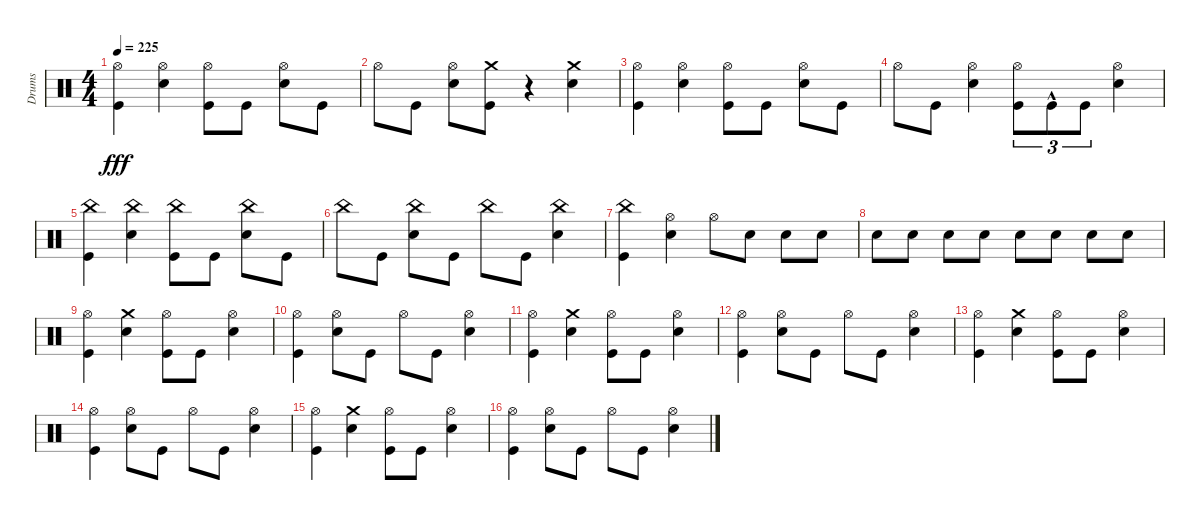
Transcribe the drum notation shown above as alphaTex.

\track ("Drums" "Drums") {instrument percussion}
\staff {score}
\articulation defaults
\ts (4 4)
\tempo 225
\clef neutral
\ks c
("Kick (hit)" "Hi-Hat (open)").4{dy fff} ("Snare (hit) 2" "Hi-Hat (open)").4 ("Kick (hit)" "Hi-Hat (open)").8 "Kick (hit)".8 ("Snare (hit) 2" "Hi-Hat (open)").8 "Kick (hit)".8 |
"Hi-Hat (open)".8 "Kick (hit)".8 ("Snare (hit) 2" "Hi-Hat (open)").8 ("Crash medium (hit)" "Kick (hit)").8 r.4 ("Snare (hit) 2" "Crash medium (hit)").4 |
("Kick (hit)" "Hi-Hat (open)").4 ("Snare (hit) 2" "Hi-Hat (open)").4 ("Kick (hit)" "Hi-Hat (open)").8 "Kick (hit)".8 ("Snare (hit) 2" "Hi-Hat (open)").8 "Kick (hit)".8 |
"Hi-Hat (open)".8 "Kick (hit)".8 ("Snare (hit) 2" "Hi-Hat (open)").4 ("Kick (hit)" "Hi-Hat (open)").8{tu (3 2)} "Kick (hit)"{hac}.8{tu (3 2)} "Kick (hit)".8{tu (3 2)} ("Hi-Hat (open)" "Snare (hit) 2").4 |
("China (hit)" "Kick (hit)").4 ("China (hit)" "Snare (hit) 2").4 ("China (hit)" "Kick (hit)").8 "Kick (hit)".8 ("China (hit)" "Snare (hit) 2").8 "Kick (hit)".8 |
"China (hit)".8 "Kick (hit)".8 ("China (hit)" "Snare (hit) 2").8 "Kick (hit)".8 "China (hit)".8 "Kick (hit)".8 ("China (hit)" "Snare (hit) 2").4 |
("China (hit)" "Kick (hit)").4 ("Snare (hit) 2" "Hi-Hat (open)").4 "Hi-Hat (open)".8 "Snare (hit) 2".8 "Snare (hit) 2".8 "Snare (hit) 2".8 |
"Snare (hit) 2".8 "Snare (hit) 2".8 "Snare (hit) 2".8 "Snare (hit) 2".8 "Snare (hit) 2".8 "Snare (hit) 2".8 "Snare (hit) 2".8 "Snare (hit) 2".8 |
("Kick (hit)" "Hi-Hat (open)").4 ("Snare (hit) 2" "Crash medium (hit)").4 ("Kick (hit)" "Hi-Hat (open)").8 "Kick (hit)".8 ("Snare (hit) 2" "Hi-Hat (open)").4 |
("Kick (hit)" "Hi-Hat (open)").4 ("Hi-Hat (open)" "Snare (hit) 2").8 "Kick (hit)".8 "Hi-Hat (open)".8 "Kick (hit)".8 ("Snare (hit) 2" "Hi-Hat (open)").4 |
("Kick (hit)" "Hi-Hat (open)").4 ("Snare (hit) 2" "Crash medium (hit)").4 ("Kick (hit)" "Hi-Hat (open)").8 "Kick (hit)".8 ("Snare (hit) 2" "Hi-Hat (open)").4 |
("Kick (hit)" "Hi-Hat (open)").4 ("Snare (hit) 2" "Hi-Hat (open)").8 "Kick (hit)".8 "Hi-Hat (open)".8 "Kick (hit)".8 ("Snare (hit) 2" "Hi-Hat (open)").4 |
("Kick (hit)" "Hi-Hat (open)").4 ("Crash medium (hit)" "Snare (hit) 2").4 ("Kick (hit)" "Hi-Hat (open)").8 "Kick (hit)".8 ("Snare (hit) 2" "Hi-Hat (open)").4 |
("Kick (hit)" "Hi-Hat (open)").4 ("Snare (hit) 2" "Hi-Hat (open)").8 "Kick (hit)".8 "Hi-Hat (open)".8 "Kick (hit)".8 ("Snare (hit) 2" "Hi-Hat (open)").4 |
("Kick (hit)" "Hi-Hat (open)").4 ("Snare (hit) 2" "Crash medium (hit)").4 ("Kick (hit)" "Hi-Hat (open)").8 "Kick (hit)".8 ("Snare (hit) 2" "Hi-Hat (open)").4 |
("Kick (hit)" "Hi-Hat (open)").4 ("Snare (hit) 2" "Hi-Hat (open)").8 "Kick (hit)".8 "Hi-Hat (open)".8 "Kick (hit)".8 ("Snare (hit) 2" "Hi-Hat (open)").4
